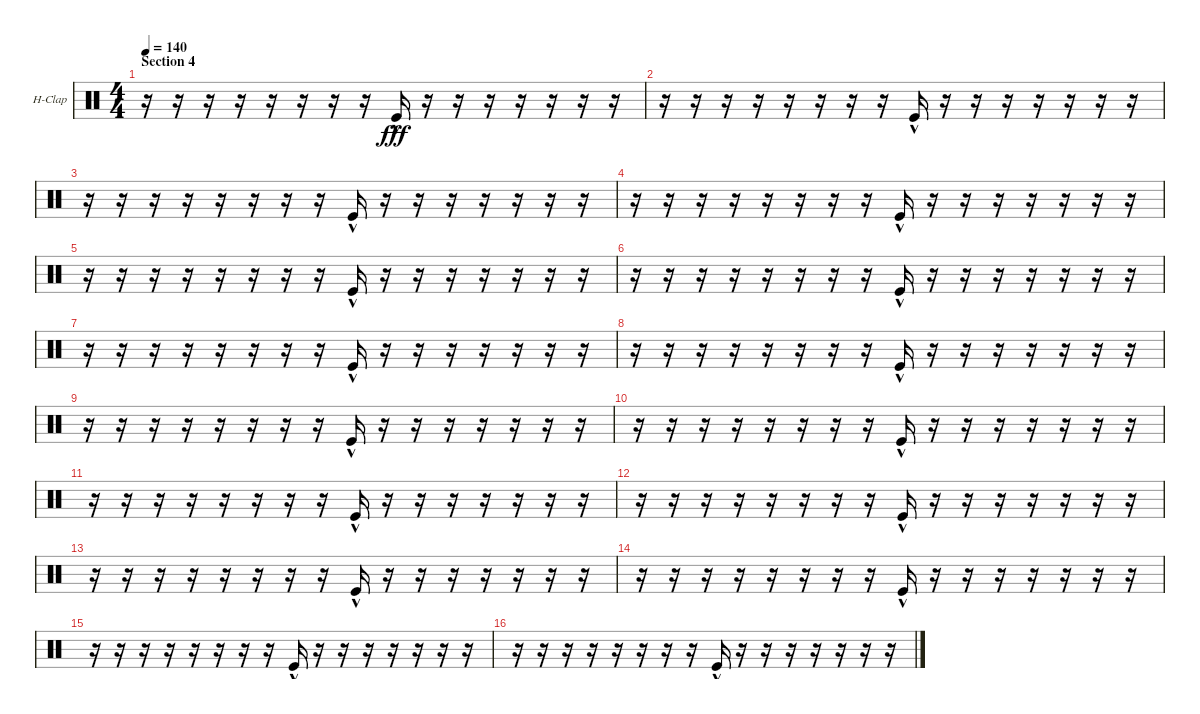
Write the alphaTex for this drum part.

\bracketExtendMode groupsimilarinstruments
\firstSystemTrackNameOrientation horizontal
\otherSystemsTrackNameOrientation horizontal
\track ("Hand Clap" "H-Clap") {instrument percussion}
\staff {score}
\articulation defaults
\ts (4 4)
\section ("" "Section 4")
\tempo 140
\clef neutral
\ks c
r.16{dy ppp} r.16 r.16 r.16 r.16 r.16 r.16 r.16 "Kick (hit)"{hac}.16{dy fff} r.16 r.16 r.16 r.16 r.16 r.16 r.16 |
r.16 r.16 r.16 r.16 r.16 r.16 r.16 r.16 "Kick (hit)"{hac}.16 r.16 r.16 r.16 r.16 r.16 r.16 r.16 |
r.16 r.16 r.16 r.16 r.16 r.16 r.16 r.16 "Kick (hit)"{hac}.16 r.16 r.16 r.16 r.16 r.16 r.16 r.16 |
r.16 r.16 r.16 r.16 r.16 r.16 r.16 r.16 "Kick (hit)"{hac}.16 r.16 r.16 r.16 r.16 r.16 r.16 r.16 |
r.16 r.16 r.16 r.16 r.16 r.16 r.16 r.16 "Kick (hit)"{hac}.16 r.16 r.16 r.16 r.16 r.16 r.16 r.16 |
r.16 r.16 r.16 r.16 r.16 r.16 r.16 r.16 "Kick (hit)"{hac}.16 r.16 r.16 r.16 r.16 r.16 r.16 r.16 |
r.16 r.16 r.16 r.16 r.16 r.16 r.16 r.16 "Kick (hit)"{hac}.16 r.16 r.16 r.16 r.16 r.16 r.16 r.16 |
r.16 r.16 r.16 r.16 r.16 r.16 r.16 r.16 "Kick (hit)"{hac}.16 r.16 r.16 r.16 r.16 r.16 r.16 r.16 |
r.16 r.16 r.16 r.16 r.16 r.16 r.16 r.16 "Kick (hit)"{hac}.16 r.16 r.16 r.16 r.16 r.16 r.16 r.16 |
r.16 r.16 r.16 r.16 r.16 r.16 r.16 r.16 "Kick (hit)"{hac}.16 r.16 r.16 r.16 r.16 r.16 r.16 r.16 |
r.16 r.16 r.16 r.16 r.16 r.16 r.16 r.16 "Kick (hit)"{hac}.16 r.16 r.16 r.16 r.16 r.16 r.16 r.16 |
r.16 r.16 r.16 r.16 r.16 r.16 r.16 r.16 "Kick (hit)"{hac}.16 r.16 r.16 r.16 r.16 r.16 r.16 r.16 |
r.16 r.16 r.16 r.16 r.16 r.16 r.16 r.16 "Kick (hit)"{hac}.16 r.16 r.16 r.16 r.16 r.16 r.16 r.16 |
r.16 r.16 r.16 r.16 r.16 r.16 r.16 r.16 "Kick (hit)"{hac}.16 r.16 r.16 r.16 r.16 r.16 r.16 r.16 |
r.16 r.16 r.16 r.16 r.16 r.16 r.16 r.16 "Kick (hit)"{hac}.16 r.16 r.16 r.16 r.16 r.16 r.16 r.16 |
r.16 r.16 r.16 r.16 r.16 r.16 r.16 r.16 "Kick (hit)"{hac}.16 r.16 r.16 r.16 r.16 r.16 r.16 r.16
